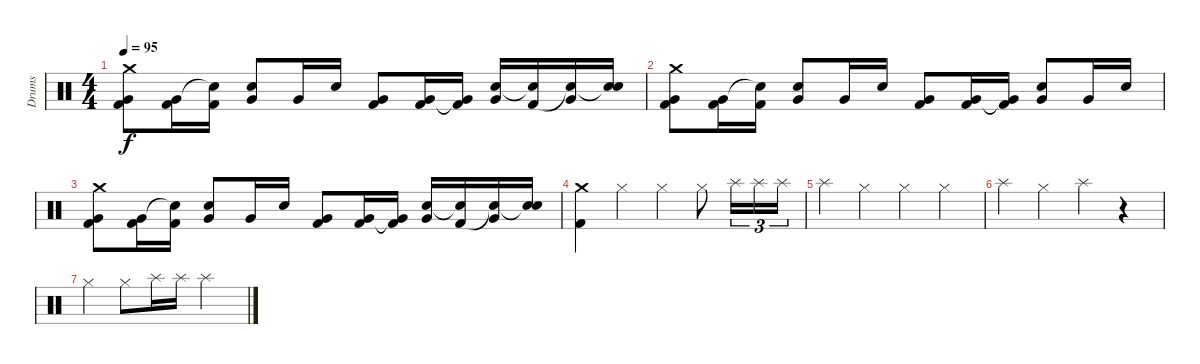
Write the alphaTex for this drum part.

\track ("Drums" "Drums") {instrument percussion}
\staff {score}
\articulation defaults
\ts (4 4)
\tempo 95
\clef neutral
\ks c
("Crash medium (hit)" "Very Low Tom (hit)" "Kick (hit) 2").8{dy f} ("Very Low Tom (hit)" "Kick (hit) 2").16 ("Snare (hit)"{t} "Kick (hit) 2").16 ("Electric Snare (hit)" "Very Low Tom (hit)").8 "Very Low Tom (hit)".16 "Electric Snare (hit)".16 ("Very Low Tom (hit)" "Kick (hit) 2").8 ("Very Low Tom (hit)" "Kick (hit) 2").16 ("Very Low Tom (hit)"{t} "Kick (hit) 2").16 ("Electric Snare (hit)" "Very Low Tom (hit)").16 ("Snare (hit)"{t} "Kick (hit) 2").16 ("Very Low Tom (hit)" "Snare (hit)"{t}).16 ("Electric Snare (hit)" "Snare (hit)"{t}).16 |
("Crash medium (hit)" "Very Low Tom (hit)" "Kick (hit) 2").8 ("Very Low Tom (hit)" "Kick (hit) 2").16 ("Snare (hit)"{t} "Kick (hit) 2").16 ("Electric Snare (hit)" "Very Low Tom (hit)").8 "Very Low Tom (hit)".16 "Electric Snare (hit)".16 ("Very Low Tom (hit)" "Kick (hit) 2").8 ("Very Low Tom (hit)" "Kick (hit) 2").16 ("Very Low Tom (hit)"{t} "Kick (hit) 2").16 ("Electric Snare (hit)" "Very Low Tom (hit)").8 "Very Low Tom (hit)".16 "Electric Snare (hit)".16 |
("Crash medium (hit)" "Very Low Tom (hit)" "Kick (hit) 2").8 ("Very Low Tom (hit)" "Kick (hit) 2").16 ("Snare (hit)"{t} "Kick (hit) 2").16 ("Electric Snare (hit)" "Very Low Tom (hit)").8 "Very Low Tom (hit)".16 "Electric Snare (hit)".16 ("Very Low Tom (hit)" "Kick (hit) 2").8 ("Very Low Tom (hit)" "Kick (hit) 2").16 ("Very Low Tom (hit)"{t} "Kick (hit) 2").16 ("Electric Snare (hit)" "Very Low Tom (hit)").16 ("Snare (hit)"{t} "Kick (hit) 2").16 ("Very Low Tom (hit)" "Snare (hit)"{t}).16 ("Electric Snare (hit)" "Snare (hit)"{t}).16 |
("Crash medium (hit)" "Kick (hit) 2").4 "Hi-Hat (closed)".4 "Hi-Hat (closed)".4 "Hi-Hat (closed)".8 "Splash (hit)".16{tu (3 2)} "Splash (hit)".16{tu (3 2)} "Splash (hit)".16{tu (3 2)} |
"Splash (hit)".4 "Hi-Hat (closed)".4 "Hi-Hat (closed)".4 "Hi-Hat (closed)".4 |
"Splash (hit)".4 "Hi-Hat (closed)".4 "Splash (hit)".4 r.4 |
"Hi-Hat (closed)".4 "Hi-Hat (closed)".8 "Splash (hit)".16 "Splash (hit)".16 "Splash (hit)".2
